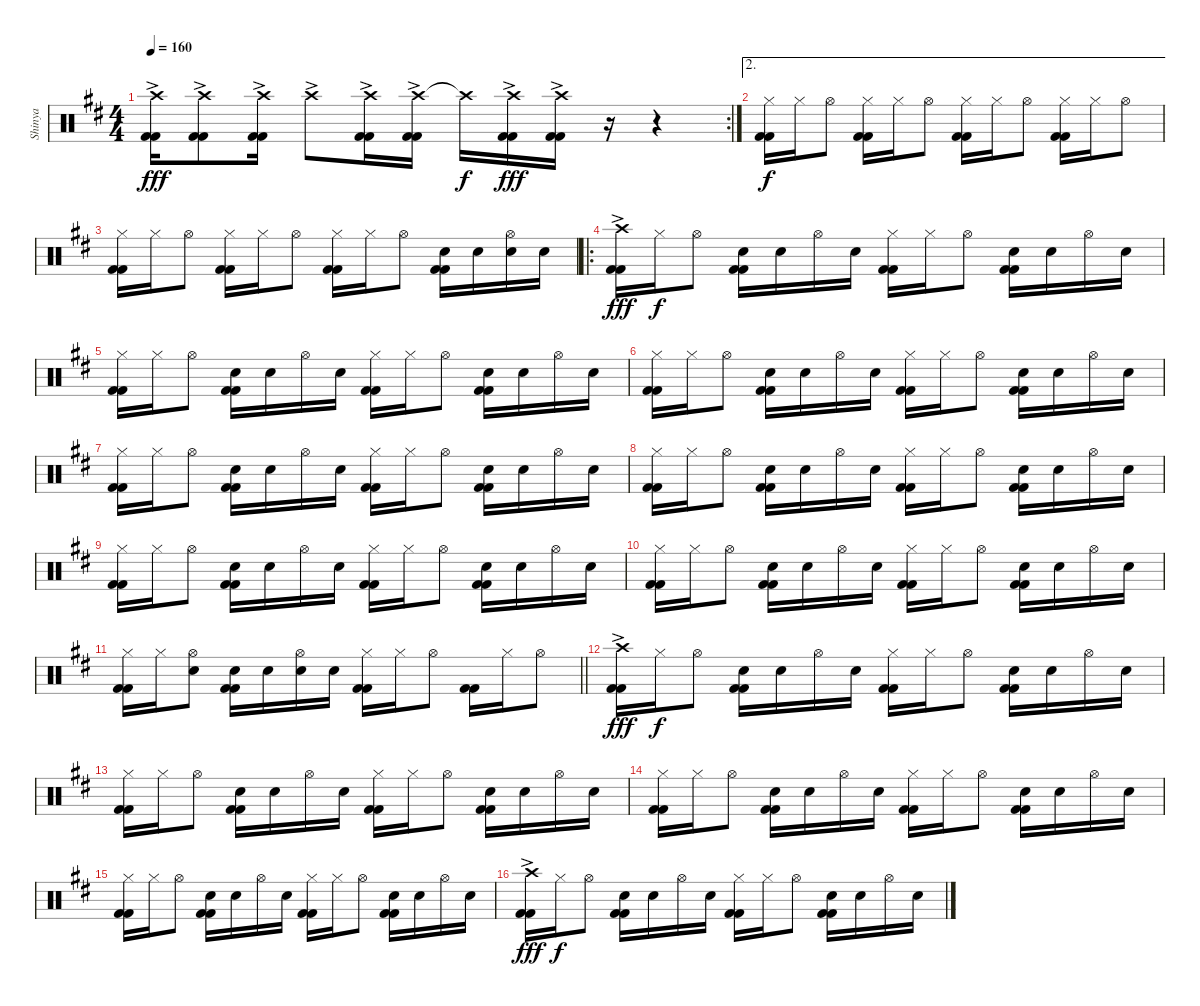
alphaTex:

\track ("Shinya " "Shinya ") {instrument percussion}
\staff {score}
\articulation defaults
\rc 2
\ts (4 4)
\tempo 160
\clef neutral
\ks d
("Crash high (hit)"{ac} "Kick (hit) 2" "Kick (hit) 2").16{dy fff} ("Crash high (hit)"{ac} "Kick (hit) 2" "Kick (hit) 2").8 ("Crash high (hit)"{ac} "Kick (hit) 2" "Kick (hit) 2").16 "Crash high (hit)"{ac}.8 ("Crash high (hit)"{ac} "Kick (hit) 2" "Kick (hit) 2").16 ("Crash high (hit)"{ac} "Kick (hit) 2" "Kick (hit) 2").16 "Crash high (hit)"{t}.16{dy f} ("Crash high (hit)"{ac} "Kick (hit) 2" "Kick (hit) 2").16{dy fff} ("Crash high (hit)"{ac} "Kick (hit) 2" "Kick (hit) 2").16 r.16 r.4 |
\ae 2
("Hi-Hat (closed)" "Kick (hit) 2" "Kick (hit) 2").16{dy f} "Hi-Hat (closed)".16 "Hi-Hat (open)".8 ("Hi-Hat (closed)" "Kick (hit) 2" "Kick (hit) 2").16 "Hi-Hat (closed)".16 "Hi-Hat (open)".8 ("Hi-Hat (closed)" "Kick (hit) 2" "Kick (hit) 2").16 "Hi-Hat (closed)".16 "Hi-Hat (open)".8 ("Hi-Hat (closed)" "Kick (hit) 2" "Kick (hit) 2").16 "Hi-Hat (closed)".16 "Hi-Hat (open)".8 |
("Hi-Hat (closed)" "Kick (hit) 2" "Kick (hit) 2").16 "Hi-Hat (closed)".16 "Hi-Hat (open)".8 ("Hi-Hat (closed)" "Kick (hit) 2" "Kick (hit) 2").16 "Hi-Hat (closed)".16 "Hi-Hat (open)".8 ("Hi-Hat (closed)" "Kick (hit) 2" "Kick (hit) 2").16 "Hi-Hat (closed)".16 "Hi-Hat (open)".8 ("Snare (hit) 2" "Kick (hit) 2" "Kick (hit) 2").16 "Snare (hit) 2".16 ("Hi-Hat (open)" "Snare (hit) 2").16 "Snare (hit) 2".16 |
\ro
("Crash high (hit)"{ac} "Kick (hit) 2" "Kick (hit) 2").16{dy fff} "Hi-Hat (closed)".16{dy f} "Hi-Hat (open)".8 ("Snare (hit) 2" "Kick (hit) 2" "Kick (hit) 2").16 "Snare (hit) 2".16 "Hi-Hat (open)".16 "Snare (hit) 2".16 ("Hi-Hat (closed)" "Kick (hit) 2" "Kick (hit) 2").16 "Hi-Hat (closed)".16 "Hi-Hat (open)".8 ("Snare (hit) 2" "Kick (hit) 2" "Kick (hit) 2").16 "Snare (hit) 2".16 "Hi-Hat (open)".16 "Snare (hit) 2".16 |
("Hi-Hat (closed)" "Kick (hit) 2" "Kick (hit) 2").16 "Hi-Hat (closed)".16 "Hi-Hat (open)".8 ("Snare (hit) 2" "Kick (hit) 2" "Kick (hit) 2").16 "Snare (hit) 2".16 "Hi-Hat (open)".16 "Snare (hit) 2".16 ("Hi-Hat (closed)" "Kick (hit) 2" "Kick (hit) 2").16 "Hi-Hat (closed)".16 "Hi-Hat (open)".8 ("Snare (hit) 2" "Kick (hit) 2" "Kick (hit) 2").16 "Snare (hit) 2".16 "Hi-Hat (open)".16 "Snare (hit) 2".16 |
("Hi-Hat (closed)" "Kick (hit) 2" "Kick (hit) 2").16 "Hi-Hat (closed)".16 "Hi-Hat (open)".8 ("Snare (hit) 2" "Kick (hit) 2" "Kick (hit) 2").16 "Snare (hit) 2".16 "Hi-Hat (open)".16 "Snare (hit) 2".16 ("Hi-Hat (closed)" "Kick (hit) 2" "Kick (hit) 2").16 "Hi-Hat (closed)".16 "Hi-Hat (open)".8 ("Snare (hit) 2" "Kick (hit) 2" "Kick (hit) 2").16 "Snare (hit) 2".16 "Hi-Hat (open)".16 "Snare (hit) 2".16 |
("Hi-Hat (closed)" "Kick (hit) 2" "Kick (hit) 2").16 "Hi-Hat (closed)".16 "Hi-Hat (open)".8 ("Snare (hit) 2" "Kick (hit) 2" "Kick (hit) 2").16 "Snare (hit) 2".16 "Hi-Hat (open)".16 "Snare (hit) 2".16 ("Hi-Hat (closed)" "Kick (hit) 2" "Kick (hit) 2").16 "Hi-Hat (closed)".16 "Hi-Hat (open)".8 ("Snare (hit) 2" "Kick (hit) 2" "Kick (hit) 2").16 "Snare (hit) 2".16 "Hi-Hat (open)".16 "Snare (hit) 2".16 |
("Hi-Hat (closed)" "Kick (hit) 2" "Kick (hit) 2").16 "Hi-Hat (closed)".16 "Hi-Hat (open)".8 ("Snare (hit) 2" "Kick (hit) 2" "Kick (hit) 2").16 "Snare (hit) 2".16 "Hi-Hat (open)".16 "Snare (hit) 2".16 ("Hi-Hat (closed)" "Kick (hit) 2" "Kick (hit) 2").16 "Hi-Hat (closed)".16 "Hi-Hat (open)".8 ("Snare (hit) 2" "Kick (hit) 2" "Kick (hit) 2").16 "Snare (hit) 2".16 "Hi-Hat (open)".16 "Snare (hit) 2".16 |
("Hi-Hat (closed)" "Kick (hit) 2" "Kick (hit) 2").16 "Hi-Hat (closed)".16 "Hi-Hat (open)".8 ("Snare (hit) 2" "Kick (hit) 2" "Kick (hit) 2").16 "Snare (hit) 2".16 "Hi-Hat (open)".16 "Snare (hit) 2".16 ("Hi-Hat (closed)" "Kick (hit) 2" "Kick (hit) 2").16 "Hi-Hat (closed)".16 "Hi-Hat (open)".8 ("Snare (hit) 2" "Kick (hit) 2" "Kick (hit) 2").16 "Snare (hit) 2".16 "Hi-Hat (open)".16 "Snare (hit) 2".16 |
("Hi-Hat (closed)" "Kick (hit) 2" "Kick (hit) 2").16 "Hi-Hat (closed)".16 "Hi-Hat (open)".8 ("Snare (hit) 2" "Kick (hit) 2" "Kick (hit) 2").16 "Snare (hit) 2".16 "Hi-Hat (open)".16 "Snare (hit) 2".16 ("Hi-Hat (closed)" "Kick (hit) 2" "Kick (hit) 2").16 "Hi-Hat (closed)".16 "Hi-Hat (open)".8 ("Snare (hit) 2" "Kick (hit) 2" "Kick (hit) 2").16 "Snare (hit) 2".16 "Hi-Hat (open)".16 "Snare (hit) 2".16 |
\barLineRight lightlight
("Hi-Hat (closed)" "Kick (hit) 2" "Kick (hit) 2").16 "Hi-Hat (closed)".16 ("Hi-Hat (open)" "Snare (hit) 2").8 ("Snare (hit) 2" "Kick (hit) 2" "Kick (hit) 2").16 "Snare (hit) 2".16 ("Hi-Hat (open)" "Snare (hit) 2").16 "Snare (hit) 2".16 ("Hi-Hat (closed)" "Kick (hit) 2" "Kick (hit) 2").16 "Hi-Hat (closed)".16 "Hi-Hat (open)".8 ("Kick (hit) 2" "Kick (hit) 2").16 "Hi-Hat (closed)".16 "Hi-Hat (open)".8 |
("Crash high (hit)"{ac} "Kick (hit) 2" "Kick (hit) 2").16{dy fff} "Hi-Hat (closed)".16{dy f} "Hi-Hat (open)".8 ("Snare (hit) 2" "Kick (hit) 2" "Kick (hit) 2").16 "Snare (hit) 2".16 "Hi-Hat (open)".16 "Snare (hit) 2".16 ("Hi-Hat (closed)" "Kick (hit) 2" "Kick (hit) 2").16 "Hi-Hat (closed)".16 "Hi-Hat (open)".8 ("Snare (hit) 2" "Kick (hit) 2" "Kick (hit) 2").16 "Snare (hit) 2".16 "Hi-Hat (open)".16 "Snare (hit) 2".16 |
("Hi-Hat (closed)" "Kick (hit) 2" "Kick (hit) 2").16 "Hi-Hat (closed)".16 "Hi-Hat (open)".8 ("Snare (hit) 2" "Kick (hit) 2" "Kick (hit) 2").16 "Snare (hit) 2".16 "Hi-Hat (open)".16 "Snare (hit) 2".16 ("Hi-Hat (closed)" "Kick (hit) 2" "Kick (hit) 2").16 "Hi-Hat (closed)".16 "Hi-Hat (open)".8 ("Snare (hit) 2" "Kick (hit) 2" "Kick (hit) 2").16 "Snare (hit) 2".16 "Hi-Hat (open)".16 "Snare (hit) 2".16 |
("Hi-Hat (closed)" "Kick (hit) 2" "Kick (hit) 2").16 "Hi-Hat (closed)".16 "Hi-Hat (open)".8 ("Snare (hit) 2" "Kick (hit) 2" "Kick (hit) 2").16 "Snare (hit) 2".16 "Hi-Hat (open)".16 "Snare (hit) 2".16 ("Hi-Hat (closed)" "Kick (hit) 2" "Kick (hit) 2").16 "Hi-Hat (closed)".16 "Hi-Hat (open)".8 ("Snare (hit) 2" "Kick (hit) 2" "Kick (hit) 2").16 "Snare (hit) 2".16 "Hi-Hat (open)".16 "Snare (hit) 2".16 |
("Hi-Hat (closed)" "Kick (hit) 2" "Kick (hit) 2").16 "Hi-Hat (closed)".16 "Hi-Hat (open)".8 ("Snare (hit) 2" "Kick (hit) 2" "Kick (hit) 2").16 "Snare (hit) 2".16 "Hi-Hat (open)".16 "Snare (hit) 2".16 ("Hi-Hat (closed)" "Kick (hit) 2" "Kick (hit) 2").16 "Hi-Hat (closed)".16 "Hi-Hat (open)".8 ("Snare (hit) 2" "Kick (hit) 2" "Kick (hit) 2").16 "Snare (hit) 2".16 "Hi-Hat (open)".16 "Snare (hit) 2".16 |
("Crash high (hit)"{ac} "Kick (hit) 2" "Kick (hit) 2").16{dy fff} "Hi-Hat (closed)".16{dy f} "Hi-Hat (open)".8 ("Snare (hit) 2" "Kick (hit) 2" "Kick (hit) 2").16 "Snare (hit) 2".16 "Hi-Hat (open)".16 "Snare (hit) 2".16 ("Hi-Hat (closed)" "Kick (hit) 2" "Kick (hit) 2").16 "Hi-Hat (closed)".16 "Hi-Hat (open)".8 ("Snare (hit) 2" "Kick (hit) 2" "Kick (hit) 2").16 "Snare (hit) 2".16 "Hi-Hat (open)".16 "Snare (hit) 2".16
